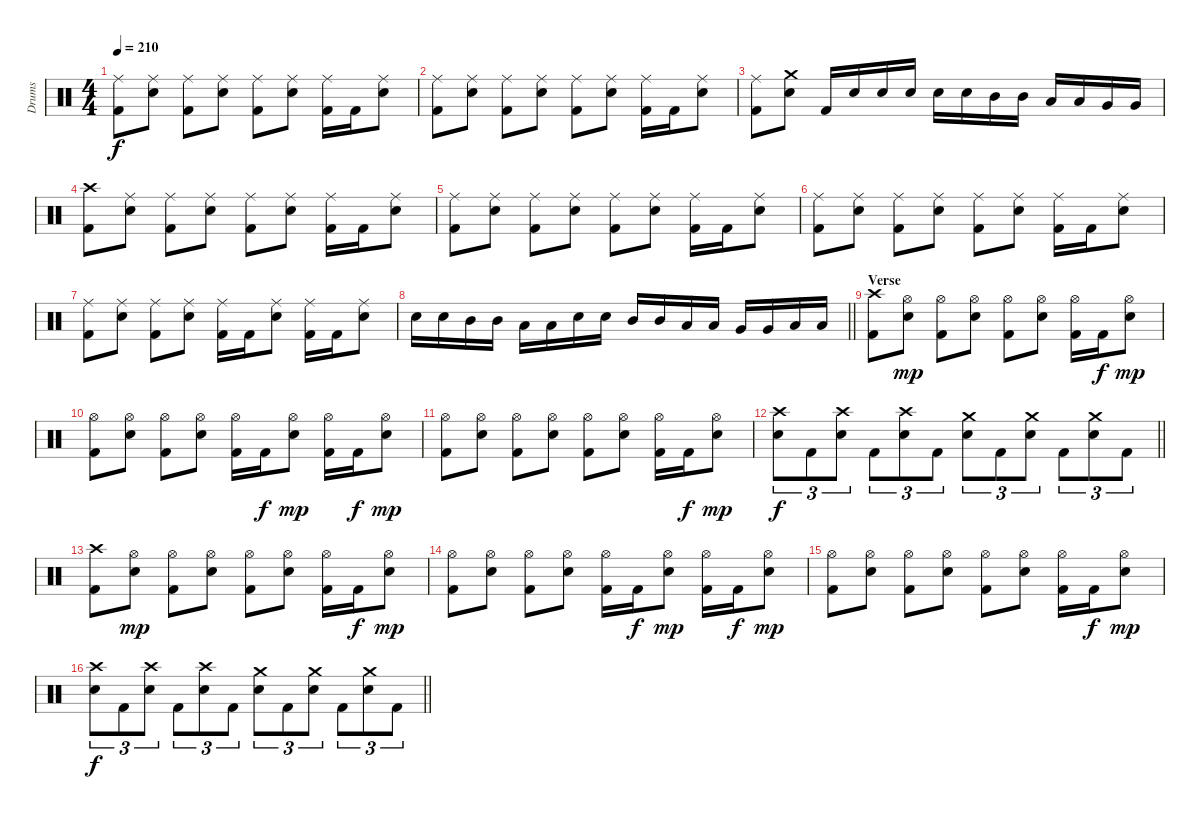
\track ("Drums" "Drums") {instrument percussion}
\staff {score}
\articulation defaults
\ts (4 4)
\tempo 210
\clef neutral
\ks c
("Ride (middle)" "Kick (hit) 2").8{dy f} ("Ride (middle)" "Snare (hit) 2").8 ("Ride (middle)" "Kick (hit) 2").8 ("Ride (middle)" "Snare (hit) 2").8 ("Ride (middle)" "Kick (hit) 2").8 ("Ride (middle)" "Snare (hit) 2").8 ("Ride (middle)" "Kick (hit) 2").16 "Kick (hit) 2".16 ("Ride (middle)" "Snare (hit) 2").8 |
("Ride (middle)" "Kick (hit) 2").8 ("Ride (middle)" "Snare (hit) 2").8 ("Ride (middle)" "Kick (hit) 2").8 ("Ride (middle)" "Snare (hit) 2").8 ("Ride (middle)" "Kick (hit) 2").8 ("Ride (middle)" "Snare (hit) 2").8 ("Ride (middle)" "Kick (hit) 2").16 "Kick (hit) 2".16 ("Ride (middle)" "Snare (hit) 2").8 |
("Ride (middle)" "Kick (hit) 2").8 ("Crash medium (hit)" "Snare (hit) 2").8 "Kick (hit) 2".16 "Snare (hit) 2".16 "Snare (hit) 2".16 "Snare (hit) 2".16 "Snare (hit) 2".16 "Snare (hit) 2".16 "Mid Tom (hit)".16 "Mid Tom (hit)".16 "Low Tom (hit)".16 "Low Tom (hit)".16 "Very Low Tom (hit)".16 "Very Low Tom (hit)".16 |
("Crash high (hit)" "Kick (hit) 2").8 ("Ride (middle)" "Snare (hit) 2").8 ("Ride (middle)" "Kick (hit) 2").8 ("Ride (middle)" "Snare (hit) 2").8 ("Ride (middle)" "Kick (hit) 2").8 ("Ride (middle)" "Snare (hit) 2").8 ("Ride (middle)" "Kick (hit) 2").16 "Kick (hit) 2".16 ("Ride (middle)" "Snare (hit) 2").8 |
("Ride (middle)" "Kick (hit) 2").8 ("Ride (middle)" "Snare (hit) 2").8 ("Ride (middle)" "Kick (hit) 2").8 ("Ride (middle)" "Snare (hit) 2").8 ("Ride (middle)" "Kick (hit) 2").8 ("Ride (middle)" "Snare (hit) 2").8 ("Ride (middle)" "Kick (hit) 2").16 "Kick (hit) 2".16 ("Ride (middle)" "Snare (hit) 2").8 |
("Ride (middle)" "Kick (hit) 2").8 ("Ride (middle)" "Snare (hit) 2").8 ("Ride (middle)" "Kick (hit) 2").8 ("Ride (middle)" "Snare (hit) 2").8 ("Ride (middle)" "Kick (hit) 2").8 ("Ride (middle)" "Snare (hit) 2").8 ("Ride (middle)" "Kick (hit) 2").16 "Kick (hit) 2".16 ("Ride (middle)" "Snare (hit) 2").8 |
("Ride (middle)" "Kick (hit) 2").8 ("Ride (middle)" "Snare (hit) 2").8 ("Ride (middle)" "Kick (hit) 2").8 ("Ride (middle)" "Snare (hit) 2").8 ("Ride (middle)" "Kick (hit) 2").16 "Kick (hit) 2".16 ("Ride (middle)" "Snare (hit) 2").8 ("Ride (middle)" "Kick (hit) 2").16 "Kick (hit) 2".16 ("Ride (middle)" "Snare (hit) 2").8 |
\barLineRight lightlight "Snare (hit) 2".16 "Snare (hit) 2".16 "Mid Tom (hit)".16 "Mid Tom (hit)".16 "Low Tom (hit)".16 "Low Tom (hit)".16 "Snare (hit) 2".16 "Snare (hit) 2".16 "Mid Tom (hit)".16 "Mid Tom (hit)".16 "Low Tom (hit)".16 "Low Tom (hit)".16 "Very Low Tom (hit)".16 "Very Low Tom (hit)".16 "Low Floor Tom (hit)".16 "Low Floor Tom (hit)".16
|
\section ("" "Verse")
("Crash high (hit)" "Kick (hit) 2").8 ("Hi-Hat (open)" "Snare (hit) 2").8{dy mp} ("Hi-Hat (open)" "Kick (hit) 2").8 ("Hi-Hat (open)" "Snare (hit) 2").8 ("Hi-Hat (open)" "Kick (hit) 2").8 ("Hi-Hat (open)" "Snare (hit) 2").8 ("Hi-Hat (open)" "Kick (hit) 2").16 "Kick (hit) 2".16{dy f} ("Hi-Hat (open)" "Snare (hit) 2").8{dy mp} |
("Hi-Hat (open)" "Kick (hit) 2").8 ("Hi-Hat (open)" "Snare (hit) 2").8 ("Hi-Hat (open)" "Kick (hit) 2").8 ("Hi-Hat (open)" "Snare (hit) 2").8 ("Hi-Hat (open)" "Kick (hit) 2").16 "Kick (hit) 2".16{dy f} ("Hi-Hat (open)" "Snare (hit) 2").8{dy mp} ("Hi-Hat (open)" "Kick (hit) 2").16 "Kick (hit) 2".16{dy f} ("Hi-Hat (open)" "Snare (hit) 2").8{dy mp} |
("Hi-Hat (open)" "Kick (hit) 2").8 ("Hi-Hat (open)" "Snare (hit) 2").8 ("Hi-Hat (open)" "Kick (hit) 2").8 ("Hi-Hat (open)" "Snare (hit) 2").8 ("Hi-Hat (open)" "Kick (hit) 2").8 ("Hi-Hat (open)" "Snare (hit) 2").8 ("Hi-Hat (open)" "Kick (hit) 2").16 "Kick (hit) 2".16{dy f} ("Hi-Hat (open)" "Snare (hit) 2").8{dy mp} |
\barLineRight lightlight
("Crash high (hit)" "Snare (hit) 2").8{tu (3 2) dy f} "Kick (hit) 2".8{tu (3 2)} ("Crash high (hit)" "Snare (hit) 2").8{tu (3 2)} "Kick (hit) 2".8{tu (3 2)} ("Crash high (hit)" "Snare (hit) 2").8{tu (3 2)} "Kick (hit) 2".8{tu (3 2)} ("Crash medium (hit)" "Snare (hit) 2").8{tu (3 2)} "Kick (hit) 2".8{tu (3 2)} ("Crash medium (hit)" "Snare (hit) 2").8{tu (3 2)} "Kick (hit) 2".8{tu (3 2)} ("Crash medium (hit)" "Snare (hit) 2").8{tu (3 2)} "Kick (hit) 2".8{tu (3 2)} |
("Crash high (hit)" "Kick (hit) 2").8 ("Hi-Hat (open)" "Snare (hit) 2").8{dy mp} ("Hi-Hat (open)" "Kick (hit) 2").8 ("Hi-Hat (open)" "Snare (hit) 2").8 ("Hi-Hat (open)" "Kick (hit) 2").8 ("Hi-Hat (open)" "Snare (hit) 2").8 ("Hi-Hat (open)" "Kick (hit) 2").16 "Kick (hit) 2".16{dy f} ("Hi-Hat (open)" "Snare (hit) 2").8{dy mp} |
("Hi-Hat (open)" "Kick (hit) 2").8 ("Hi-Hat (open)" "Snare (hit) 2").8 ("Hi-Hat (open)" "Kick (hit) 2").8 ("Hi-Hat (open)" "Snare (hit) 2").8 ("Hi-Hat (open)" "Kick (hit) 2").16 "Kick (hit) 2".16{dy f} ("Hi-Hat (open)" "Snare (hit) 2").8{dy mp} ("Hi-Hat (open)" "Kick (hit) 2").16 "Kick (hit) 2".16{dy f} ("Hi-Hat (open)" "Snare (hit) 2").8{dy mp} |
("Hi-Hat (open)" "Kick (hit) 2").8 ("Hi-Hat (open)" "Snare (hit) 2").8 ("Hi-Hat (open)" "Kick (hit) 2").8 ("Hi-Hat (open)" "Snare (hit) 2").8 ("Hi-Hat (open)" "Kick (hit) 2").8 ("Hi-Hat (open)" "Snare (hit) 2").8 ("Hi-Hat (open)" "Kick (hit) 2").16 "Kick (hit) 2".16{dy f} ("Hi-Hat (open)" "Snare (hit) 2").8{dy mp} |
\barLineRight lightlight
("Crash high (hit)" "Snare (hit) 2").8{tu (3 2) dy f} "Kick (hit) 2".8{tu (3 2)} ("Crash high (hit)" "Snare (hit) 2").8{tu (3 2)} "Kick (hit) 2".8{tu (3 2)} ("Crash high (hit)" "Snare (hit) 2").8{tu (3 2)} "Kick (hit) 2".8{tu (3 2)} ("Crash medium (hit)" "Snare (hit) 2").8{tu (3 2)} "Kick (hit) 2".8{tu (3 2)} ("Crash medium (hit)" "Snare (hit) 2").8{tu (3 2)} "Kick (hit) 2".8{tu (3 2)} ("Crash medium (hit)" "Snare (hit) 2").8{tu (3 2)} "Kick (hit) 2".8{tu (3 2)}
